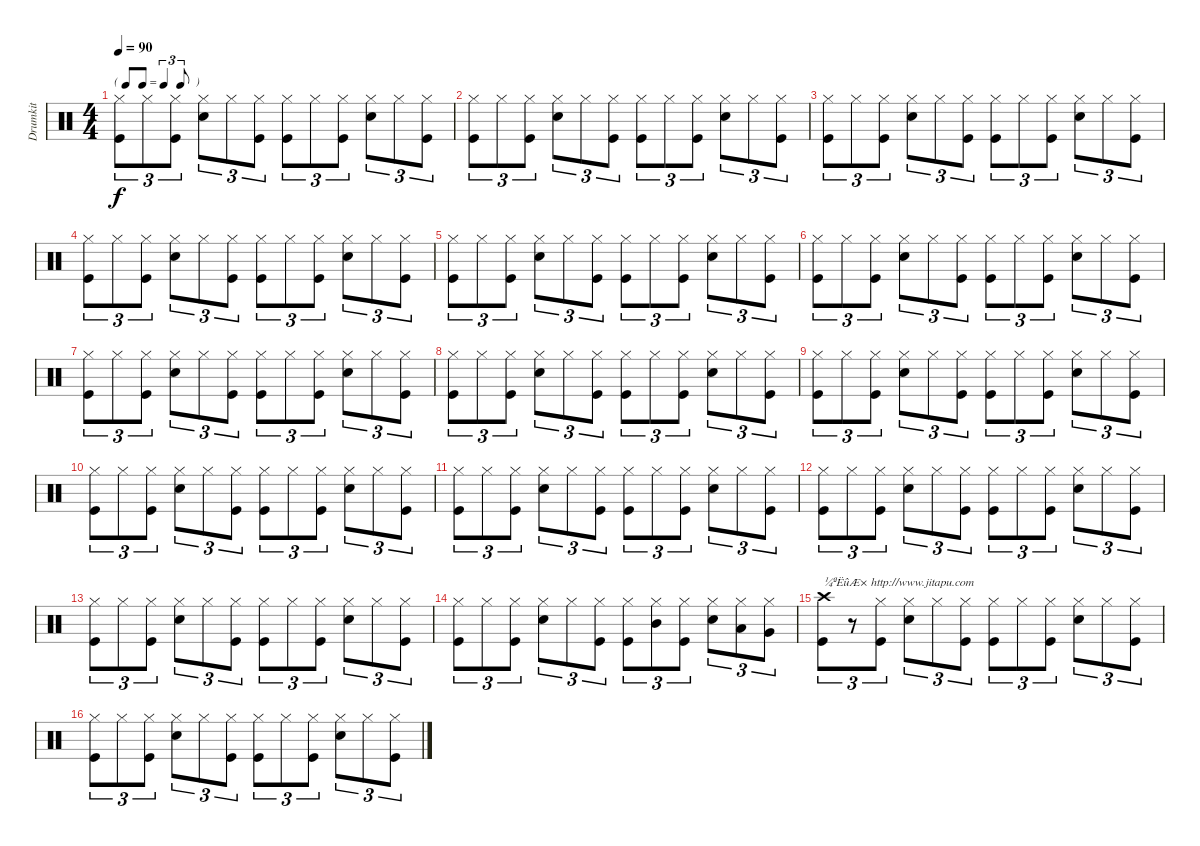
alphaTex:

\track ("Drumkit" "Drumkit") {instrument percussion}
\staff {score}
\articulation defaults
\ts (4 4)
\tf triplet8th
\tempo 90
\clef neutral
\ks c
("Hi-Hat (closed)" "Kick (hit)").8{tu (3 2) dy f} "Hi-Hat (closed)".8{tu (3 2)} ("Hi-Hat (closed)" "Kick (hit)").8{tu (3 2)} ("Hi-Hat (closed)" "Snare (hit) 2").8{tu (3 2)} "Hi-Hat (closed)".8{tu (3 2)} ("Hi-Hat (closed)" "Kick (hit)").8{tu (3 2)} ("Hi-Hat (closed)" "Kick (hit)").8{tu (3 2)} "Hi-Hat (closed)".8{tu (3 2)} ("Hi-Hat (closed)" "Kick (hit)").8{tu (3 2)} ("Hi-Hat (closed)" "Snare (hit) 2").8{tu (3 2)} "Hi-Hat (closed)".8{tu (3 2)} ("Hi-Hat (closed)" "Kick (hit)").8{tu (3 2)} |
("Hi-Hat (closed)" "Kick (hit)").8{tu (3 2)} "Hi-Hat (closed)".8{tu (3 2)} ("Hi-Hat (closed)" "Kick (hit)").8{tu (3 2)} ("Hi-Hat (closed)" "Snare (hit) 2").8{tu (3 2)} "Hi-Hat (closed)".8{tu (3 2)} ("Hi-Hat (closed)" "Kick (hit)").8{tu (3 2)} ("Hi-Hat (closed)" "Kick (hit)").8{tu (3 2)} "Hi-Hat (closed)".8{tu (3 2)} ("Hi-Hat (closed)" "Kick (hit)").8{tu (3 2)} ("Hi-Hat (closed)" "Snare (hit) 2").8{tu (3 2)} "Hi-Hat (closed)".8{tu (3 2)} ("Hi-Hat (closed)" "Kick (hit)").8{tu (3 2)} |
("Hi-Hat (closed)" "Kick (hit)").8{tu (3 2)} "Hi-Hat (closed)".8{tu (3 2)} ("Hi-Hat (closed)" "Kick (hit)").8{tu (3 2)} ("Hi-Hat (closed)" "Snare (hit) 2").8{tu (3 2)} "Hi-Hat (closed)".8{tu (3 2)} ("Hi-Hat (closed)" "Kick (hit)").8{tu (3 2)} ("Hi-Hat (closed)" "Kick (hit)").8{tu (3 2)} "Hi-Hat (closed)".8{tu (3 2)} ("Hi-Hat (closed)" "Kick (hit)").8{tu (3 2)} ("Hi-Hat (closed)" "Snare (hit) 2").8{tu (3 2)} "Hi-Hat (closed)".8{tu (3 2)} ("Hi-Hat (closed)" "Kick (hit)").8{tu (3 2)} |
("Hi-Hat (closed)" "Kick (hit)").8{tu (3 2)} "Hi-Hat (closed)".8{tu (3 2)} ("Hi-Hat (closed)" "Kick (hit)").8{tu (3 2)} ("Hi-Hat (closed)" "Snare (hit) 2").8{tu (3 2)} "Hi-Hat (closed)".8{tu (3 2)} ("Hi-Hat (closed)" "Kick (hit)").8{tu (3 2)} ("Hi-Hat (closed)" "Kick (hit)").8{tu (3 2)} "Hi-Hat (closed)".8{tu (3 2)} ("Hi-Hat (closed)" "Kick (hit)").8{tu (3 2)} ("Hi-Hat (closed)" "Snare (hit) 2").8{tu (3 2)} "Hi-Hat (closed)".8{tu (3 2)} ("Hi-Hat (closed)" "Kick (hit)").8{tu (3 2)} |
("Hi-Hat (closed)" "Kick (hit)").8{tu (3 2)} "Hi-Hat (closed)".8{tu (3 2)} ("Hi-Hat (closed)" "Kick (hit)").8{tu (3 2)} ("Hi-Hat (closed)" "Snare (hit) 2").8{tu (3 2)} "Hi-Hat (closed)".8{tu (3 2)} ("Hi-Hat (closed)" "Kick (hit)").8{tu (3 2)} ("Hi-Hat (closed)" "Kick (hit)").8{tu (3 2)} "Hi-Hat (closed)".8{tu (3 2)} ("Hi-Hat (closed)" "Kick (hit)").8{tu (3 2)} ("Hi-Hat (closed)" "Snare (hit) 2").8{tu (3 2)} "Hi-Hat (closed)".8{tu (3 2)} ("Hi-Hat (closed)" "Kick (hit)").8{tu (3 2)} |
("Hi-Hat (closed)" "Kick (hit)").8{tu (3 2)} "Hi-Hat (closed)".8{tu (3 2)} ("Hi-Hat (closed)" "Kick (hit)").8{tu (3 2)} ("Hi-Hat (closed)" "Snare (hit) 2").8{tu (3 2)} "Hi-Hat (closed)".8{tu (3 2)} ("Hi-Hat (closed)" "Kick (hit)").8{tu (3 2)} ("Hi-Hat (closed)" "Kick (hit)").8{tu (3 2)} "Hi-Hat (closed)".8{tu (3 2)} ("Hi-Hat (closed)" "Kick (hit)").8{tu (3 2)} ("Hi-Hat (closed)" "Snare (hit) 2").8{tu (3 2)} "Hi-Hat (closed)".8{tu (3 2)} ("Hi-Hat (closed)" "Kick (hit)").8{tu (3 2)} |
("Hi-Hat (closed)" "Kick (hit)").8{tu (3 2)} "Hi-Hat (closed)".8{tu (3 2)} ("Hi-Hat (closed)" "Kick (hit)").8{tu (3 2)} ("Hi-Hat (closed)" "Snare (hit) 2").8{tu (3 2)} "Hi-Hat (closed)".8{tu (3 2)} ("Hi-Hat (closed)" "Kick (hit)").8{tu (3 2)} ("Hi-Hat (closed)" "Kick (hit)").8{tu (3 2)} "Hi-Hat (closed)".8{tu (3 2)} ("Hi-Hat (closed)" "Kick (hit)").8{tu (3 2)} ("Hi-Hat (closed)" "Snare (hit) 2").8{tu (3 2)} "Hi-Hat (closed)".8{tu (3 2)} ("Hi-Hat (closed)" "Kick (hit)").8{tu (3 2)} |
("Hi-Hat (closed)" "Kick (hit)").8{tu (3 2)} "Hi-Hat (closed)".8{tu (3 2)} ("Hi-Hat (closed)" "Kick (hit)").8{tu (3 2)} ("Hi-Hat (closed)" "Snare (hit) 2").8{tu (3 2)} "Hi-Hat (closed)".8{tu (3 2)} ("Hi-Hat (closed)" "Kick (hit)").8{tu (3 2)} ("Hi-Hat (closed)" "Kick (hit)").8{tu (3 2)} "Hi-Hat (closed)".8{tu (3 2)} ("Hi-Hat (closed)" "Kick (hit)").8{tu (3 2)} ("Hi-Hat (closed)" "Snare (hit) 2").8{tu (3 2)} "Hi-Hat (closed)".8{tu (3 2)} ("Hi-Hat (closed)" "Kick (hit)").8{tu (3 2)} |
("Hi-Hat (closed)" "Kick (hit)").8{tu (3 2)} "Hi-Hat (closed)".8{tu (3 2)} ("Hi-Hat (closed)" "Kick (hit)").8{tu (3 2)} ("Hi-Hat (closed)" "Snare (hit) 2").8{tu (3 2)} "Hi-Hat (closed)".8{tu (3 2)} ("Hi-Hat (closed)" "Kick (hit)").8{tu (3 2)} ("Hi-Hat (closed)" "Kick (hit)").8{tu (3 2)} "Hi-Hat (closed)".8{tu (3 2)} ("Hi-Hat (closed)" "Kick (hit)").8{tu (3 2)} ("Hi-Hat (closed)" "Snare (hit) 2").8{tu (3 2)} "Hi-Hat (closed)".8{tu (3 2)} ("Hi-Hat (closed)" "Kick (hit)").8{tu (3 2)} |
("Hi-Hat (closed)" "Kick (hit)").8{tu (3 2)} "Hi-Hat (closed)".8{tu (3 2)} ("Hi-Hat (closed)" "Kick (hit)").8{tu (3 2)} ("Hi-Hat (closed)" "Snare (hit) 2").8{tu (3 2)} "Hi-Hat (closed)".8{tu (3 2)} ("Hi-Hat (closed)" "Kick (hit)").8{tu (3 2)} ("Hi-Hat (closed)" "Kick (hit)").8{tu (3 2)} "Hi-Hat (closed)".8{tu (3 2)} ("Hi-Hat (closed)" "Kick (hit)").8{tu (3 2)} ("Hi-Hat (closed)" "Snare (hit) 2").8{tu (3 2)} "Hi-Hat (closed)".8{tu (3 2)} ("Hi-Hat (closed)" "Kick (hit)").8{tu (3 2)} |
("Hi-Hat (closed)" "Kick (hit)").8{tu (3 2)} "Hi-Hat (closed)".8{tu (3 2)} ("Hi-Hat (closed)" "Kick (hit)").8{tu (3 2)} ("Hi-Hat (closed)" "Snare (hit) 2").8{tu (3 2)} "Hi-Hat (closed)".8{tu (3 2)} ("Hi-Hat (closed)" "Kick (hit)").8{tu (3 2)} ("Hi-Hat (closed)" "Kick (hit)").8{tu (3 2)} "Hi-Hat (closed)".8{tu (3 2)} ("Hi-Hat (closed)" "Kick (hit)").8{tu (3 2)} ("Hi-Hat (closed)" "Snare (hit) 2").8{tu (3 2)} "Hi-Hat (closed)".8{tu (3 2)} ("Hi-Hat (closed)" "Kick (hit)").8{tu (3 2)} |
("Hi-Hat (closed)" "Kick (hit)").8{tu (3 2)} "Hi-Hat (closed)".8{tu (3 2)} ("Hi-Hat (closed)" "Kick (hit)").8{tu (3 2)} ("Hi-Hat (closed)" "Snare (hit) 2").8{tu (3 2)} "Hi-Hat (closed)".8{tu (3 2)} ("Hi-Hat (closed)" "Kick (hit)").8{tu (3 2)} ("Hi-Hat (closed)" "Kick (hit)").8{tu (3 2)} "Hi-Hat (closed)".8{tu (3 2)} ("Hi-Hat (closed)" "Kick (hit)").8{tu (3 2)} ("Hi-Hat (closed)" "Snare (hit) 2").8{tu (3 2)} "Hi-Hat (closed)".8{tu (3 2)} ("Hi-Hat (closed)" "Kick (hit)").8{tu (3 2)} |
("Hi-Hat (closed)" "Kick (hit)").8{tu (3 2)} "Hi-Hat (closed)".8{tu (3 2)} ("Hi-Hat (closed)" "Kick (hit)").8{tu (3 2)} ("Hi-Hat (closed)" "Snare (hit) 2").8{tu (3 2)} "Hi-Hat (closed)".8{tu (3 2)} ("Hi-Hat (closed)" "Kick (hit)").8{tu (3 2)} ("Hi-Hat (closed)" "Kick (hit)").8{tu (3 2)} "Hi-Hat (closed)".8{tu (3 2)} ("Hi-Hat (closed)" "Kick (hit)").8{tu (3 2)} ("Hi-Hat (closed)" "Snare (hit) 2").8{tu (3 2)} "Hi-Hat (closed)".8{tu (3 2)} ("Hi-Hat (closed)" "Kick (hit)").8{tu (3 2)} |
("Hi-Hat (closed)" "Kick (hit)").8{tu (3 2)} "Hi-Hat (closed)".8{tu (3 2)} ("Hi-Hat (closed)" "Kick (hit)").8{tu (3 2)} ("Hi-Hat (closed)" "Snare (hit) 2").8{tu (3 2)} "Hi-Hat (closed)".8{tu (3 2)} ("Hi-Hat (closed)" "Kick (hit)").8{tu (3 2)} ("Hi-Hat (closed)" "Kick (hit)").8{tu (3 2)} ("Hi-Hat (closed)" "Mid Tom (hit)").8{tu (3 2)} ("Hi-Hat (closed)" "Kick (hit)").8{tu (3 2)} ("Hi-Hat (closed)" "Snare (hit) 2").8{tu (3 2)} ("Hi-Hat (closed)" "Low Tom (hit)").8{tu (3 2)} ("Hi-Hat (closed)" "Very Low Tom (hit)").8{tu (3 2)} |
("Crash high (hit)" "Kick (hit)").8{tu (3 2) txt "¼ªËûÆ× http://www.jitapu.com"} r.8{tu (3 2)} ("Hi-Hat (closed)" "Kick (hit)").8{tu (3 2)} ("Hi-Hat (closed)" "Snare (hit) 2").8{tu (3 2)} "Hi-Hat (closed)".8{tu (3 2)} ("Hi-Hat (closed)" "Kick (hit)").8{tu (3 2)} ("Hi-Hat (closed)" "Kick (hit)").8{tu (3 2)} "Hi-Hat (closed)".8{tu (3 2)} ("Hi-Hat (closed)" "Kick (hit)").8{tu (3 2)} ("Hi-Hat (closed)" "Snare (hit) 2").8{tu (3 2)} "Hi-Hat (closed)".8{tu (3 2)} ("Hi-Hat (closed)" "Kick (hit)").8{tu (3 2)} |
("Hi-Hat (closed)" "Kick (hit)").8{tu (3 2)} "Hi-Hat (closed)".8{tu (3 2)} ("Hi-Hat (closed)" "Kick (hit)").8{tu (3 2)} ("Hi-Hat (closed)" "Snare (hit) 2").8{tu (3 2)} "Hi-Hat (closed)".8{tu (3 2)} ("Hi-Hat (closed)" "Kick (hit)").8{tu (3 2)} ("Hi-Hat (closed)" "Kick (hit)").8{tu (3 2)} "Hi-Hat (closed)".8{tu (3 2)} ("Hi-Hat (closed)" "Kick (hit)").8{tu (3 2)} ("Hi-Hat (closed)" "Snare (hit) 2").8{tu (3 2)} "Hi-Hat (closed)".8{tu (3 2)} ("Hi-Hat (closed)" "Kick (hit)").8{tu (3 2)}
